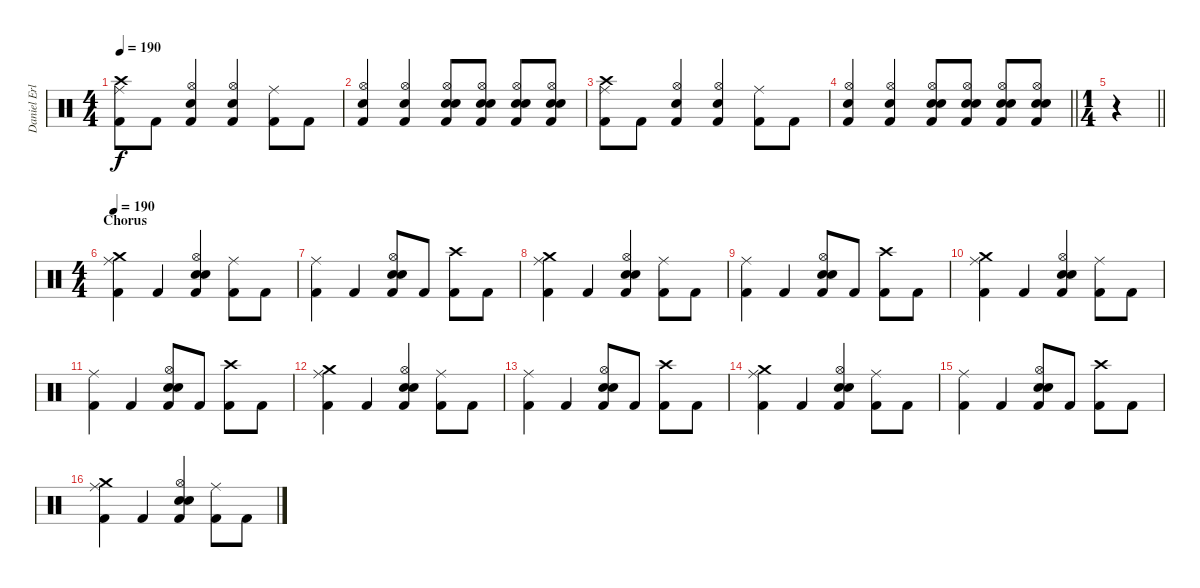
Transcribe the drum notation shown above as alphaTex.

\track ("Daniel Erlandsson" "Daniel Erl") {instrument percussion}
\staff {score}
\articulation defaults
\ts (4 4)
\tempo 190
\clef neutral
\ks c
("Crash high (hit)" "Ride (middle)" "Kick (hit) 2").8{dy f} "Kick (hit) 2".8 ("Hi-Hat (open)" "Snare (hit) 2" "Kick (hit) 2").4 ("Hi-Hat (open)" "Snare (hit) 2" "Kick (hit) 2").4 ("Ride (middle)" "Kick (hit) 2").8 "Kick (hit) 2".8 |
("Hi-Hat (open)" "Snare (hit) 2" "Kick (hit) 2").4 ("Hi-Hat (open)" "Snare (hit) 2" "Kick (hit) 2").4 ("Hi-Hat (open)" "Snare (hit) 2" "Electric Snare (hit)" "Kick (hit) 2").8 ("Hi-Hat (open)" "Snare (hit) 2" "Electric Snare (hit)" "Kick (hit) 2").8 ("Hi-Hat (open)" "Snare (hit) 2" "Electric Snare (hit)" "Kick (hit) 2").8 ("Hi-Hat (open)" "Snare (hit) 2" "Electric Snare (hit)" "Kick (hit) 2").8 |
("Crash high (hit)" "Ride (middle)" "Kick (hit) 2").8 "Kick (hit) 2".8 ("Hi-Hat (open)" "Snare (hit) 2" "Kick (hit) 2").4 ("Hi-Hat (open)" "Snare (hit) 2" "Kick (hit) 2").4 ("Ride (middle)" "Kick (hit) 2").8 "Kick (hit) 2".8 |
\barLineRight lightlight
("Hi-Hat (open)" "Snare (hit) 2" "Kick (hit) 2").4 ("Hi-Hat (open)" "Snare (hit) 2" "Kick (hit) 2").4 ("Hi-Hat (open)" "Snare (hit) 2" "Electric Snare (hit)" "Kick (hit) 2").8 ("Hi-Hat (open)" "Snare (hit) 2" "Electric Snare (hit)" "Kick (hit) 2").8 ("Hi-Hat (open)" "Snare (hit) 2" "Electric Snare (hit)" "Kick (hit) 2").8 ("Hi-Hat (open)" "Snare (hit) 2" "Electric Snare (hit)" "Kick (hit) 2").8 |
\ts (1 4)
\barLineRight lightlight
r.4 |
\ts (4 4)
\section ("" "Chorus")
\tempo 190
("Crash medium (hit)" "Ride (middle)" "Kick (hit) 2").4 "Kick (hit) 2".4 ("Hi-Hat (open)" "Snare (hit) 2" "Electric Snare (hit)" "Kick (hit) 2").4 ("Ride (middle)" "Kick (hit) 2").8 "Kick (hit) 2".8 |
("Ride (middle)" "Kick (hit) 2").4 "Kick (hit) 2".4 ("Hi-Hat (open)" "Snare (hit) 2" "Electric Snare (hit)" "Kick (hit) 2").8 "Kick (hit) 2".8 ("Crash high (hit)" "Kick (hit) 2").8 "Kick (hit) 2".8 |
("Crash medium (hit)" "Ride (middle)" "Kick (hit) 2").4 "Kick (hit) 2".4 ("Hi-Hat (open)" "Snare (hit) 2" "Electric Snare (hit)" "Kick (hit) 2").4 ("Ride (middle)" "Kick (hit) 2").8 "Kick (hit) 2".8 |
("Ride (middle)" "Kick (hit) 2").4 "Kick (hit) 2".4 ("Hi-Hat (open)" "Snare (hit) 2" "Electric Snare (hit)" "Kick (hit) 2").8 "Kick (hit) 2".8 ("Crash high (hit)" "Kick (hit) 2").8 "Kick (hit) 2".8 |
("Crash medium (hit)" "Ride (middle)" "Kick (hit) 2").4 "Kick (hit) 2".4 ("Hi-Hat (open)" "Snare (hit) 2" "Electric Snare (hit)" "Kick (hit) 2").4 ("Ride (middle)" "Kick (hit) 2").8 "Kick (hit) 2".8 |
("Ride (middle)" "Kick (hit) 2").4 "Kick (hit) 2".4 ("Hi-Hat (open)" "Snare (hit) 2" "Electric Snare (hit)" "Kick (hit) 2").8 "Kick (hit) 2".8 ("Crash high (hit)" "Kick (hit) 2").8 "Kick (hit) 2".8 |
("Crash medium (hit)" "Ride (middle)" "Kick (hit) 2").4 "Kick (hit) 2".4 ("Hi-Hat (open)" "Snare (hit) 2" "Electric Snare (hit)" "Kick (hit) 2").4 ("Ride (middle)" "Kick (hit) 2").8 "Kick (hit) 2".8 |
("Ride (middle)" "Kick (hit) 2").4 "Kick (hit) 2".4 ("Hi-Hat (open)" "Snare (hit) 2" "Electric Snare (hit)" "Kick (hit) 2").8 "Kick (hit) 2".8 ("Crash high (hit)" "Kick (hit) 2").8 "Kick (hit) 2".8 |
("Crash medium (hit)" "Ride (middle)" "Kick (hit) 2").4 "Kick (hit) 2".4 ("Hi-Hat (open)" "Snare (hit) 2" "Electric Snare (hit)" "Kick (hit) 2").4 ("Ride (middle)" "Kick (hit) 2").8 "Kick (hit) 2".8 |
("Ride (middle)" "Kick (hit) 2").4 "Kick (hit) 2".4 ("Hi-Hat (open)" "Snare (hit) 2" "Electric Snare (hit)" "Kick (hit) 2").8 "Kick (hit) 2".8 ("Crash high (hit)" "Kick (hit) 2").8 "Kick (hit) 2".8 |
("Crash medium (hit)" "Ride (middle)" "Kick (hit) 2").4 "Kick (hit) 2".4 ("Hi-Hat (open)" "Snare (hit) 2" "Electric Snare (hit)" "Kick (hit) 2").4 ("Ride (middle)" "Kick (hit) 2").8 "Kick (hit) 2".8
